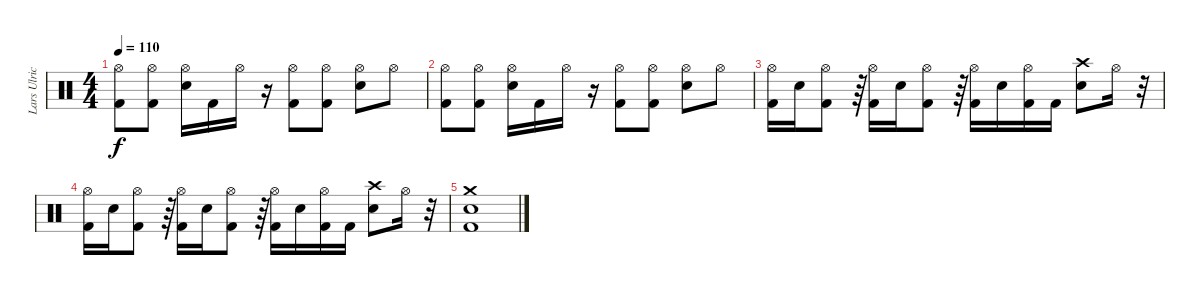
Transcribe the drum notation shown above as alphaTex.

\track ("Lars Ulrich" "Lars Ulric") {instrument percussion}
\staff {score}
\articulation defaults
\ts (4 4)
\tempo 110
\clef neutral
\ks c
("Hi-Hat (open)" "Kick (hit) 2").8{dy f} ("Hi-Hat (open)" "Kick (hit) 2").8 ("Hi-Hat (open)" "Electric Snare (hit)").16 "Kick (hit) 2".16 "Hi-Hat (open)".16 r.16 ("Hi-Hat (open)" "Kick (hit) 2").8 ("Hi-Hat (open)" "Kick (hit) 2").8 ("Hi-Hat (open)" "Electric Snare (hit)").8 "Hi-Hat (open)".8 |
("Hi-Hat (open)" "Kick (hit) 2").8 ("Hi-Hat (open)" "Kick (hit) 2").8 ("Hi-Hat (open)" "Electric Snare (hit)").16 "Kick (hit) 2".16 "Hi-Hat (open)".16 r.16 ("Hi-Hat (open)" "Kick (hit) 2").8 ("Hi-Hat (open)" "Kick (hit) 2").8 ("Hi-Hat (open)" "Electric Snare (hit)").8 "Hi-Hat (open)".8 |
("Hi-Hat (open)" "Kick (hit) 2").16 "Electric Snare (hit)".16 ("Hi-Hat (open)" "Kick (hit) 2").8 r.64 ("Hi-Hat (open)" "Kick (hit) 2").16 "Electric Snare (hit)".16 ("Hi-Hat (open)" "Kick (hit) 2").8 r.64 ("Hi-Hat (open)" "Kick (hit) 2").16 "Electric Snare (hit)".16 ("Hi-Hat (open)" "Kick (hit) 2").16 "Kick (hit) 2".16 ("Crash high (hit)" "Electric Snare (hit)").8 "Hi-Hat (open)".16 r.32 |
("Hi-Hat (open)" "Kick (hit) 2").16 "Electric Snare (hit)".16 ("Hi-Hat (open)" "Kick (hit) 2").8 r.64 ("Hi-Hat (open)" "Kick (hit) 2").16 "Electric Snare (hit)".16 ("Hi-Hat (open)" "Kick (hit) 2").8 r.64 ("Hi-Hat (open)" "Kick (hit) 2").16 "Electric Snare (hit)".16 ("Hi-Hat (open)" "Kick (hit) 2").16 "Kick (hit) 2".16 ("Crash high (hit)" "Electric Snare (hit)").8 "Hi-Hat (open)".16 r.32 |
("Crash medium (hit)" "Electric Snare (hit)" "Kick (hit) 2").1
